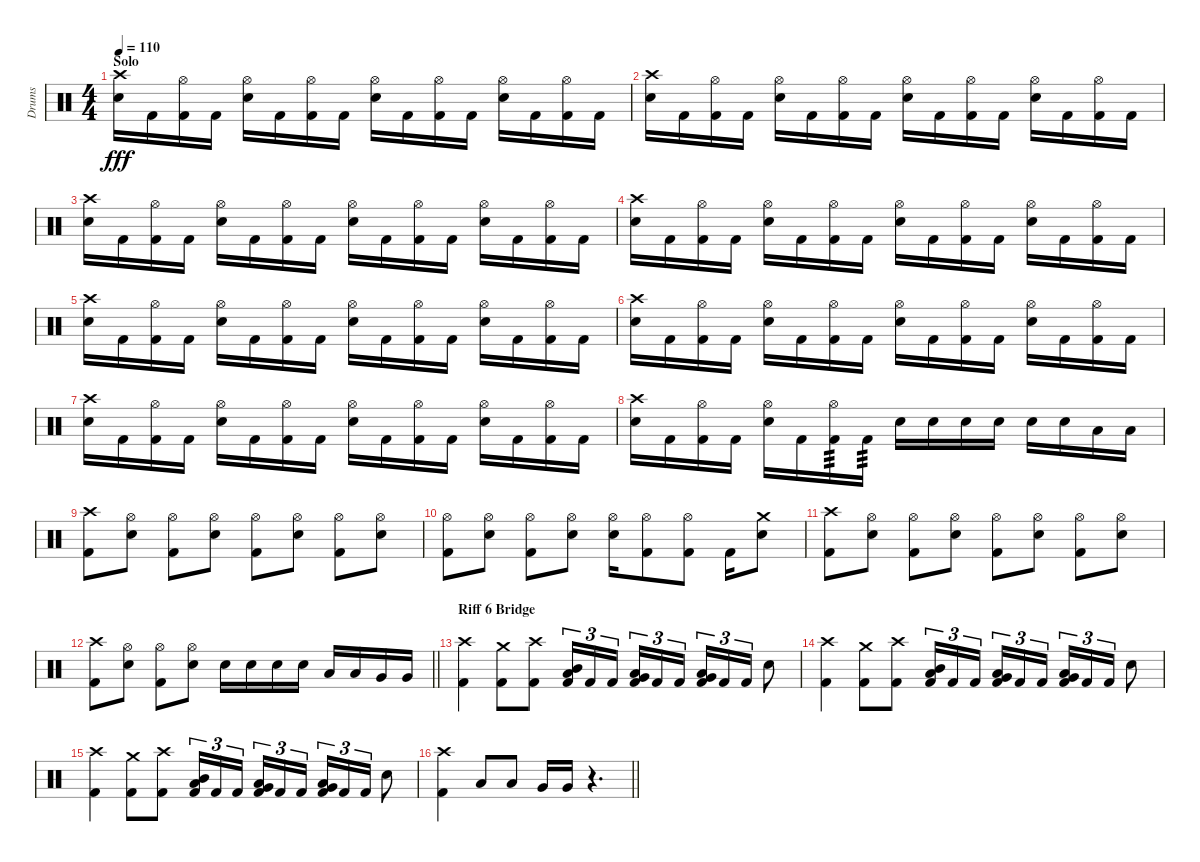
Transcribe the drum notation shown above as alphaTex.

\track ("Drums" "Drums") {instrument percussion}
\staff {score}
\articulation defaults
\ts (4 4)
\section ("" "Solo")
\tempo 110
\clef neutral
\ks c
("Crash high (hit)" "Electric Snare (hit)").16{dy fff} "Kick (hit) 2".16 ("Hi-Hat (open)" "Kick (hit) 2").16 "Kick (hit) 2".16 ("Hi-Hat (open)" "Electric Snare (hit)").16 "Kick (hit) 2".16 ("Hi-Hat (open)" "Kick (hit) 2").16 "Kick (hit) 2".16 ("Hi-Hat (open)" "Electric Snare (hit)").16 "Kick (hit) 2".16 ("Hi-Hat (open)" "Kick (hit) 2").16 "Kick (hit) 2".16 ("Hi-Hat (open)" "Electric Snare (hit)").16 "Kick (hit) 2".16 ("Hi-Hat (open)" "Kick (hit) 2").16 "Kick (hit) 2".16 |
("Crash high (hit)" "Electric Snare (hit)").16 "Kick (hit) 2".16 ("Hi-Hat (open)" "Kick (hit) 2").16 "Kick (hit) 2".16 ("Hi-Hat (open)" "Electric Snare (hit)").16 "Kick (hit) 2".16 ("Hi-Hat (open)" "Kick (hit) 2").16 "Kick (hit) 2".16 ("Hi-Hat (open)" "Electric Snare (hit)").16 "Kick (hit) 2".16 ("Hi-Hat (open)" "Kick (hit) 2").16 "Kick (hit) 2".16 ("Hi-Hat (open)" "Electric Snare (hit)").16 "Kick (hit) 2".16 ("Hi-Hat (open)" "Kick (hit) 2").16 "Kick (hit) 2".16 |
("Crash high (hit)" "Electric Snare (hit)").16 "Kick (hit) 2".16 ("Hi-Hat (open)" "Kick (hit) 2").16 "Kick (hit) 2".16 ("Hi-Hat (open)" "Electric Snare (hit)").16 "Kick (hit) 2".16 ("Hi-Hat (open)" "Kick (hit) 2").16 "Kick (hit) 2".16 ("Hi-Hat (open)" "Electric Snare (hit)").16 "Kick (hit) 2".16 ("Hi-Hat (open)" "Kick (hit) 2").16 "Kick (hit) 2".16 ("Hi-Hat (open)" "Electric Snare (hit)").16 "Kick (hit) 2".16 ("Hi-Hat (open)" "Kick (hit) 2").16 "Kick (hit) 2".16 |
("Crash high (hit)" "Electric Snare (hit)").16 "Kick (hit) 2".16 ("Hi-Hat (open)" "Kick (hit) 2").16 "Kick (hit) 2".16 ("Hi-Hat (open)" "Electric Snare (hit)").16 "Kick (hit) 2".16 ("Hi-Hat (open)" "Kick (hit) 2").16 "Kick (hit) 2".16 ("Hi-Hat (open)" "Electric Snare (hit)").16 "Kick (hit) 2".16 ("Hi-Hat (open)" "Kick (hit) 2").16 "Kick (hit) 2".16 ("Hi-Hat (open)" "Electric Snare (hit)").16 "Kick (hit) 2".16 ("Hi-Hat (open)" "Kick (hit) 2").16 "Kick (hit) 2".16 |
("Crash high (hit)" "Electric Snare (hit)").16 "Kick (hit) 2".16 ("Hi-Hat (open)" "Kick (hit) 2").16 "Kick (hit) 2".16 ("Hi-Hat (open)" "Electric Snare (hit)").16 "Kick (hit) 2".16 ("Hi-Hat (open)" "Kick (hit) 2").16 "Kick (hit) 2".16 ("Hi-Hat (open)" "Electric Snare (hit)").16 "Kick (hit) 2".16 ("Hi-Hat (open)" "Kick (hit) 2").16 "Kick (hit) 2".16 ("Hi-Hat (open)" "Electric Snare (hit)").16 "Kick (hit) 2".16 ("Hi-Hat (open)" "Kick (hit) 2").16 "Kick (hit) 2".16 |
("Crash high (hit)" "Electric Snare (hit)").16 "Kick (hit) 2".16 ("Hi-Hat (open)" "Kick (hit) 2").16 "Kick (hit) 2".16 ("Hi-Hat (open)" "Electric Snare (hit)").16 "Kick (hit) 2".16 ("Hi-Hat (open)" "Kick (hit) 2").16 "Kick (hit) 2".16 ("Hi-Hat (open)" "Electric Snare (hit)").16 "Kick (hit) 2".16 ("Hi-Hat (open)" "Kick (hit) 2").16 "Kick (hit) 2".16 ("Hi-Hat (open)" "Electric Snare (hit)").16 "Kick (hit) 2".16 ("Hi-Hat (open)" "Kick (hit) 2").16 "Kick (hit) 2".16 |
("Crash high (hit)" "Electric Snare (hit)").16 "Kick (hit) 2".16 ("Hi-Hat (open)" "Kick (hit) 2").16 "Kick (hit) 2".16 ("Hi-Hat (open)" "Electric Snare (hit)").16 "Kick (hit) 2".16 ("Hi-Hat (open)" "Kick (hit) 2").16 "Kick (hit) 2".16 ("Hi-Hat (open)" "Electric Snare (hit)").16 "Kick (hit) 2".16 ("Hi-Hat (open)" "Kick (hit) 2").16 "Kick (hit) 2".16 ("Hi-Hat (open)" "Electric Snare (hit)").16 "Kick (hit) 2".16 ("Hi-Hat (open)" "Kick (hit) 2").16 "Kick (hit) 2".16 |
("Crash high (hit)" "Electric Snare (hit)").16 "Kick (hit) 2".16 ("Hi-Hat (open)" "Kick (hit) 2").16 "Kick (hit) 2".16 ("Hi-Hat (open)" "Electric Snare (hit)").16 "Kick (hit) 2".16 ("Hi-Hat (open)" "Kick (hit) 2").16{tp 3} "Kick (hit) 2".16{tp 3} "Electric Snare (hit)".16 "Electric Snare (hit)".16 "Electric Snare (hit)".16 "Electric Snare (hit)".16 "Electric Snare (hit)".16 "Electric Snare (hit)".16 "Low Tom (hit)".16 "Low Tom (hit)".16 |
("Crash high (hit)" "Kick (hit) 2").8 ("Hi-Hat (open)" "Electric Snare (hit)").8 ("Hi-Hat (open)" "Kick (hit) 2").8 ("Hi-Hat (open)" "Electric Snare (hit)").8 ("Hi-Hat (open)" "Kick (hit) 2").8 ("Hi-Hat (open)" "Electric Snare (hit)").8 ("Hi-Hat (open)" "Kick (hit) 2").8 ("Hi-Hat (open)" "Electric Snare (hit)").8 |
("Hi-Hat (open)" "Kick (hit) 2").8 ("Hi-Hat (open)" "Electric Snare (hit)").8 ("Hi-Hat (open)" "Kick (hit) 2").8 ("Hi-Hat (open)" "Electric Snare (hit)").8 ("Hi-Hat (open)" "Electric Snare (hit)").16 ("Hi-Hat (open)" "Kick (hit) 2").8 ("Hi-Hat (open)" "Kick (hit) 2").8 "Kick (hit) 2".16 ("Crash medium (hit)" "Electric Snare (hit)").8 |
("Crash high (hit)" "Kick (hit) 2").8 ("Hi-Hat (open)" "Electric Snare (hit)").8 ("Hi-Hat (open)" "Kick (hit) 2").8 ("Hi-Hat (open)" "Electric Snare (hit)").8 ("Hi-Hat (open)" "Kick (hit) 2").8 ("Hi-Hat (open)" "Electric Snare (hit)").8 ("Hi-Hat (open)" "Kick (hit) 2").8 ("Hi-Hat (open)" "Electric Snare (hit)").8 |
\barLineRight lightlight
("Crash high (hit)" "Kick (hit) 2").8 ("Hi-Hat (open)" "Electric Snare (hit)").8 ("Hi-Hat (open)" "Kick (hit) 2").8 ("Hi-Hat (open)" "Electric Snare (hit)").8 "Electric Snare (hit)".16 "Electric Snare (hit)".16 "Electric Snare (hit)".16 "Electric Snare (hit)".16 "Low Tom (hit)".16 "Low Tom (hit)".16 "Very Low Tom (hit)".16 "Very Low Tom (hit)".16 |
\section ("" "Riff 6 Bridge")
("Crash high (hit)" "Kick (hit) 2").4 ("Crash medium (hit)" "Kick (hit) 2").8 ("Crash high (hit)" "Kick (hit) 2").8 ("Low Tom (hit)" "Mid Tom (hit)" "Kick (hit) 2").16{tu (3 2)} "Kick (hit) 2".16{tu (3 2)} "Kick (hit) 2".16{tu (3 2) beam splitsecondary} ("Very Low Tom (hit)" "Low Tom (hit)" "Kick (hit) 2").16{tu (3 2)} "Kick (hit) 2".16{tu (3 2)} "Kick (hit) 2".16{tu (3 2)} ("Low Floor Tom (hit)" "Very Low Tom (hit)" "Kick (hit) 2").16{tu (3 2)} "Kick (hit) 2".16{tu (3 2)} "Kick (hit) 2".16{tu (3 2)} "Electric Snare (hit)".8 |
("Crash high (hit)" "Kick (hit) 2").4 ("Crash medium (hit)" "Kick (hit) 2").8 ("Crash high (hit)" "Kick (hit) 2").8 ("Low Tom (hit)" "Mid Tom (hit)" "Kick (hit) 2").16{tu (3 2)} "Kick (hit) 2".16{tu (3 2)} "Kick (hit) 2".16{tu (3 2) beam splitsecondary} ("Very Low Tom (hit)" "Low Tom (hit)" "Kick (hit) 2").16{tu (3 2)} "Kick (hit) 2".16{tu (3 2)} "Kick (hit) 2".16{tu (3 2)} ("Low Floor Tom (hit)" "Very Low Tom (hit)" "Kick (hit) 2").16{tu (3 2)} "Kick (hit) 2".16{tu (3 2)} "Kick (hit) 2".16{tu (3 2)} "Electric Snare (hit)".8 |
("Crash high (hit)" "Kick (hit) 2").4 ("Crash medium (hit)" "Kick (hit) 2").8 ("Crash high (hit)" "Kick (hit) 2").8 ("Low Tom (hit)" "Mid Tom (hit)" "Kick (hit) 2").16{tu (3 2)} "Kick (hit) 2".16{tu (3 2)} "Kick (hit) 2".16{tu (3 2) beam splitsecondary} ("Very Low Tom (hit)" "Low Tom (hit)" "Kick (hit) 2").16{tu (3 2)} "Kick (hit) 2".16{tu (3 2)} "Kick (hit) 2".16{tu (3 2)} ("Low Floor Tom (hit)" "Very Low Tom (hit)" "Kick (hit) 2").16{tu (3 2)} "Kick (hit) 2".16{tu (3 2)} "Kick (hit) 2".16{tu (3 2)} "Electric Snare (hit)".8 |
\barLineRight lightlight
("Crash high (hit)" "Kick (hit) 2").4 "Low Tom (hit)".8 "Low Tom (hit)".8 "Very Low Tom (hit)".16 "Very Low Tom (hit)".16 r.4{d}
